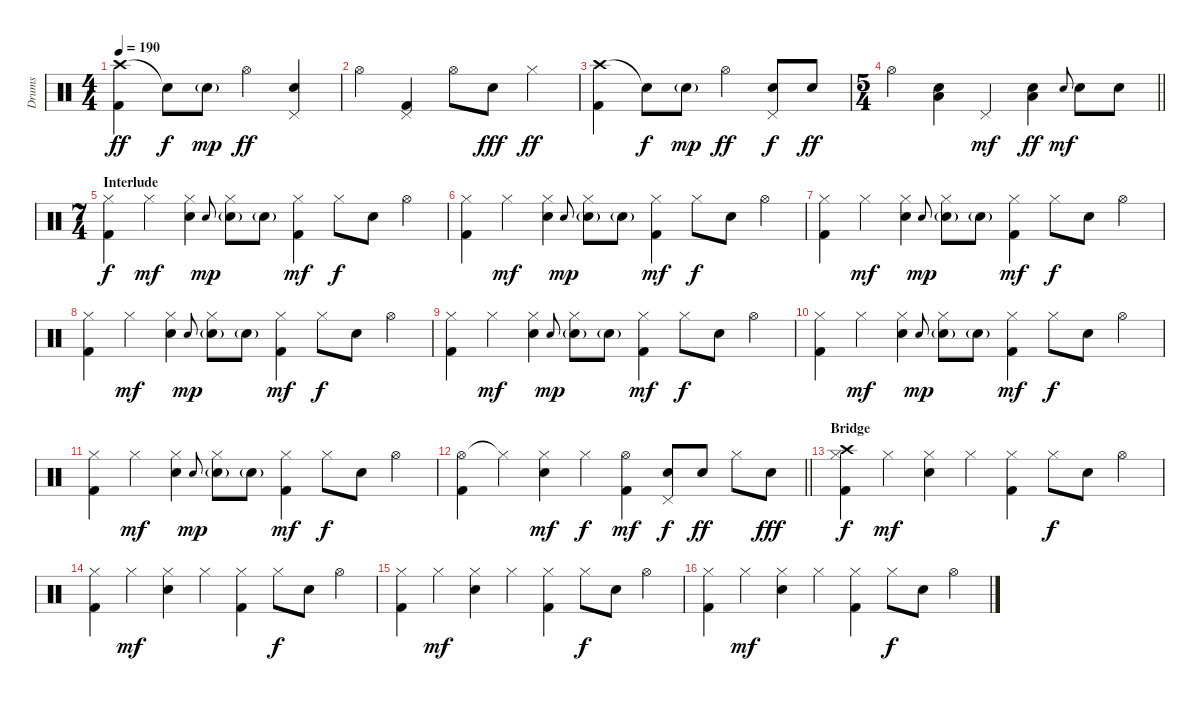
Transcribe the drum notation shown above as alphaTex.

\track ("Drums" "Drums") {instrument percussion}
\staff {score}
\articulation defaults
\ts (4 4)
\tempo 190
\clef neutral
\ks c
("Crash high (hit)" "Kick (hit) 2").4{dy ff} "Snare (hit)"{t}.8{dy f} "Electric Snare (hit)"{g}.8{dy mp} "Hi-Hat (open)".4{dy ff} ("Pedal Hi-Hat (hit)" "Electric Snare (hit)").4 |
"Hi-Hat (open)".4 ("Pedal Hi-Hat (hit)" "Kick (hit) 2").4 "Hi-Hat (open)".8 "Electric Snare (hit)".8{dy fff} "Hi-Hat (closed)".4{dy ff} |
("Crash high (hit)" "Kick (hit) 2").4 "Snare (hit)"{t}.8{dy f} "Electric Snare (hit)"{g}.8{dy mp} "Hi-Hat (open)".4{dy ff} ("Pedal Hi-Hat (hit)" "Electric Snare (hit)").8{dy f} "Electric Snare (hit)".8{dy ff} |
\ts (5 4)
\barLineRight lightlight "Hi-Hat (open)".4
("Electric Snare (hit)" "Low Tom (hit)").4 "Pedal Hi-Hat (hit)".4{dy mf} ("Electric Snare (hit)" "Low Tom (hit)").4{dy ff} "Electric Snare (hit)".8{gr onbeat dy mf} "Electric Snare (hit)".8 "Electric Snare (hit)".8 |
\ts (7 4)
\section ("" "Interlude")
("Hi-Hat (closed)" "Kick (hit) 2").4{dy f} "Hi-Hat (closed)".4{dy mf} ("Hi-Hat (closed)" "Electric Snare (hit)").4 "Electric Snare (hit)".8{gr onbeat dy mp} ("Hi-Hat (closed)" "Electric Snare (hit)"{g}).8 "Electric Snare (hit)"{g}.8 ("Hi-Hat (closed)" "Kick (hit) 2").4{dy mf} "Hi-Hat (closed)".8{dy f} "Electric Snare (hit)".8 "Hi-Hat (open)".4 |
("Hi-Hat (closed)" "Kick (hit) 2").4 "Hi-Hat (closed)".4{dy mf} ("Hi-Hat (closed)" "Electric Snare (hit)").4 "Electric Snare (hit)".8{gr onbeat dy mp} ("Hi-Hat (closed)" "Electric Snare (hit)"{g}).8 "Electric Snare (hit)"{g}.8 ("Hi-Hat (closed)" "Kick (hit) 2").4{dy mf} "Hi-Hat (closed)".8{dy f} "Electric Snare (hit)".8 "Hi-Hat (open)".4 |
("Hi-Hat (closed)" "Kick (hit) 2").4 "Hi-Hat (closed)".4{dy mf} ("Hi-Hat (closed)" "Electric Snare (hit)").4 "Electric Snare (hit)".8{gr onbeat dy mp} ("Hi-Hat (closed)" "Electric Snare (hit)"{g}).8 "Electric Snare (hit)"{g}.8 ("Hi-Hat (closed)" "Kick (hit) 2").4{dy mf} "Hi-Hat (closed)".8{dy f} "Electric Snare (hit)".8 "Hi-Hat (open)".4 |
("Hi-Hat (closed)" "Kick (hit) 2").4 "Hi-Hat (closed)".4{dy mf} ("Hi-Hat (closed)" "Electric Snare (hit)").4 "Electric Snare (hit)".8{gr onbeat dy mp} ("Hi-Hat (closed)" "Electric Snare (hit)"{g}).8 "Electric Snare (hit)"{g}.8 ("Hi-Hat (closed)" "Kick (hit) 2").4{dy mf} "Hi-Hat (closed)".8{dy f} "Electric Snare (hit)".8 "Hi-Hat (open)".4 |
("Hi-Hat (closed)" "Kick (hit) 2").4 "Hi-Hat (closed)".4{dy mf} ("Hi-Hat (closed)" "Electric Snare (hit)").4 "Electric Snare (hit)".8{gr onbeat dy mp} ("Hi-Hat (closed)" "Electric Snare (hit)"{g}).8 "Electric Snare (hit)"{g}.8 ("Hi-Hat (closed)" "Kick (hit) 2").4{dy mf} "Hi-Hat (closed)".8{dy f} "Electric Snare (hit)".8 "Hi-Hat (open)".4 |
("Hi-Hat (closed)" "Kick (hit) 2").4 "Hi-Hat (closed)".4{dy mf} ("Hi-Hat (closed)" "Electric Snare (hit)").4 "Electric Snare (hit)".8{gr onbeat dy mp} ("Hi-Hat (closed)" "Electric Snare (hit)"{g}).8 "Electric Snare (hit)"{g}.8 ("Hi-Hat (closed)" "Kick (hit) 2").4{dy mf} "Hi-Hat (closed)".8{dy f} "Electric Snare (hit)".8 "Hi-Hat (open)".4 |
("Hi-Hat (closed)" "Kick (hit) 2").4 "Hi-Hat (closed)".4{dy mf} ("Hi-Hat (closed)" "Electric Snare (hit)").4 "Electric Snare (hit)".8{gr onbeat dy mp} ("Hi-Hat (closed)" "Electric Snare (hit)"{g}).8 "Electric Snare (hit)"{g}.8 ("Hi-Hat (closed)" "Kick (hit) 2").4{dy mf} "Hi-Hat (closed)".8{dy f} "Electric Snare (hit)".8 "Hi-Hat (open)".4 |
\barLineRight lightlight
("Hi-Hat (open)" "Kick (hit) 2").4 "Hi-Hat (closed)"{t}.4 ("Hi-Hat (closed)" "Electric Snare (hit)").4{dy mf} "Hi-Hat (closed)".4{dy f} ("Hi-Hat (open)" "Kick (hit) 2").4{dy mf} ("Pedal Hi-Hat (hit)" "Electric Snare (hit)").8{dy f} "Electric Snare (hit)".8{dy ff} "Hi-Hat (closed)".8 "Electric Snare (hit)".8{dy fff} |
\section ("" "Bridge")
("Crash high (hit)" "Hi-Hat (closed)" "Kick (hit) 2").4{dy f} "Hi-Hat (closed)".4{dy mf} ("Hi-Hat (closed)" "Electric Snare (hit)").4 "Hi-Hat (closed)".4 ("Hi-Hat (closed)" "Kick (hit) 2").4 "Hi-Hat (closed)".8{dy f} "Electric Snare (hit)".8 "Hi-Hat (open)".4 |
("Hi-Hat (closed)" "Kick (hit) 2").4 "Hi-Hat (closed)".4{dy mf} ("Hi-Hat (closed)" "Electric Snare (hit)").4 "Hi-Hat (closed)".4 ("Hi-Hat (closed)" "Kick (hit) 2").4 "Hi-Hat (closed)".8{dy f} "Electric Snare (hit)".8 "Hi-Hat (open)".4 |
("Hi-Hat (closed)" "Kick (hit) 2").4 "Hi-Hat (closed)".4{dy mf} ("Hi-Hat (closed)" "Electric Snare (hit)").4 "Hi-Hat (closed)".4 ("Hi-Hat (closed)" "Kick (hit) 2").4 "Hi-Hat (closed)".8{dy f} "Electric Snare (hit)".8 "Hi-Hat (open)".4 |
("Hi-Hat (closed)" "Kick (hit) 2").4 "Hi-Hat (closed)".4{dy mf} ("Hi-Hat (closed)" "Electric Snare (hit)").4 "Hi-Hat (closed)".4 ("Hi-Hat (closed)" "Kick (hit) 2").4 "Hi-Hat (closed)".8{dy f} "Electric Snare (hit)".8 "Hi-Hat (open)".4
